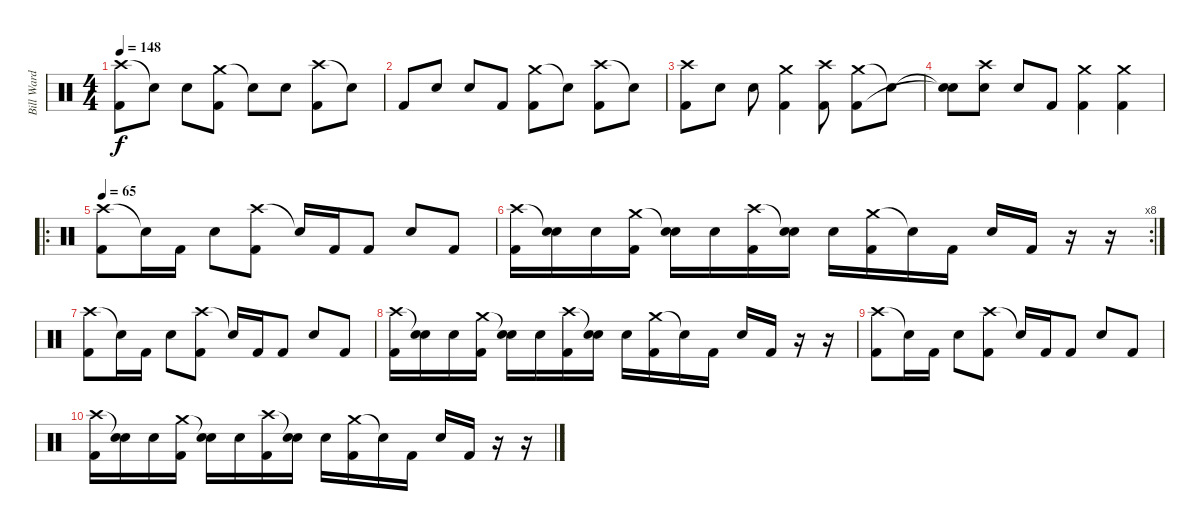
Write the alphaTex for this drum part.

\track ("Bill Ward" "Bill Ward") {instrument percussion}
\staff {score}
\articulation defaults
\ts (4 4)
\tempo 148
\clef neutral
\ks aminor
("Crash high (hit)" "Kick (hit) 2").8{dy f} "Snare (hit)"{t}.8 "Snare (hit) 2".8 ("Crash medium (hit)" "Kick (hit) 2").8 "Snare (hit)"{t}.8 "Snare (hit) 2".8 ("Crash high (hit)" "Kick (hit) 2").8 "Snare (hit)"{t}.8 |
"Kick (hit) 2".8 "Snare (hit) 2".8 "Snare (hit) 2".8 "Kick (hit) 2".8 ("Crash medium (hit)" "Kick (hit) 2").8 "Snare (hit)"{t}.8 ("Crash high (hit)" "Kick (hit) 2").8 "Snare (hit)"{t}.8 |
("Crash high (hit)" "Kick (hit) 2").8 "Snare (hit) 2".8 "Snare (hit) 2".8 ("Crash medium (hit)" "Kick (hit) 2").4 ("Crash high (hit)" "Kick (hit) 2").8 ("Crash medium (hit)" "Kick (hit) 2").8 "Snare (hit)"{t}.8 |
("Snare (hit)"{t} "Snare (hit)"{t}).8 ("Crash high (hit)" "Snare (hit) 2").8 "Snare (hit) 2".8 "Kick (hit) 2".8 ("Crash medium (hit)" "Kick (hit) 2").4 ("Crash medium (hit)" "Kick (hit) 2").4 |
\ro
\tempo 65
("Crash high (hit)" "Kick (hit) 2").8 "Snare (hit)"{t}.16 "Kick (hit) 2".16 "Snare (hit) 2".8 ("Crash high (hit)" "Kick (hit) 2").8 "Snare (hit)"{t}.16 "Kick (hit) 2".16 "Kick (hit) 2".8 "Snare (hit) 2".8 "Kick (hit) 2".8 |
\rc 8
("Crash high (hit)" "Kick (hit) 2").16 ("Snare (hit)"{t} "Snare (hit) 2").16 "Snare (hit) 2".16 ("Crash medium (hit)" "Kick (hit) 2").16 ("Snare (hit)"{t} "Snare (hit) 2").16 "Snare (hit) 2".16 ("Crash high (hit)" "Kick (hit) 2").16 ("Snare (hit)"{t} "Snare (hit) 2").16 "Snare (hit) 2".16 ("Crash medium (hit)" "Kick (hit) 2").16 "Snare (hit)"{t}.16 "Kick (hit) 2".16 "Snare (hit) 2".16 "Kick (hit) 2".16 r.16 r.16 |
("Crash high (hit)" "Kick (hit) 2").8 "Snare (hit)"{t}.16 "Kick (hit) 2".16 "Snare (hit) 2".8 ("Crash high (hit)" "Kick (hit) 2").8 "Snare (hit)"{t}.16 "Kick (hit) 2".16 "Kick (hit) 2".8 "Snare (hit) 2".8 "Kick (hit) 2".8 |
("Crash high (hit)" "Kick (hit) 2").16 ("Snare (hit)"{t} "Snare (hit) 2").16 "Snare (hit) 2".16 ("Crash medium (hit)" "Kick (hit) 2").16 ("Snare (hit)"{t} "Snare (hit) 2").16 "Snare (hit) 2".16 ("Crash high (hit)" "Kick (hit) 2").16 ("Snare (hit)"{t} "Snare (hit) 2").16 "Snare (hit) 2".16 ("Crash medium (hit)" "Kick (hit) 2").16 "Snare (hit)"{t}.16 "Kick (hit) 2".16 "Snare (hit) 2".16 "Kick (hit) 2".16 r.16 r.16 |
("Crash high (hit)" "Kick (hit) 2").8 "Snare (hit)"{t}.16 "Kick (hit) 2".16 "Snare (hit) 2".8 ("Crash high (hit)" "Kick (hit) 2").8 "Snare (hit)"{t}.16 "Kick (hit) 2".16 "Kick (hit) 2".8 "Snare (hit) 2".8 "Kick (hit) 2".8 |
("Crash high (hit)" "Kick (hit) 2").16 ("Snare (hit)"{t} "Snare (hit) 2").16 "Snare (hit) 2".16 ("Crash medium (hit)" "Kick (hit) 2").16 ("Snare (hit)"{t} "Snare (hit) 2").16 "Snare (hit) 2".16 ("Crash high (hit)" "Kick (hit) 2").16 ("Snare (hit)"{t} "Snare (hit) 2").16 "Snare (hit) 2".16 ("Crash medium (hit)" "Kick (hit) 2").16 "Snare (hit)"{t}.16 "Kick (hit) 2".16 "Snare (hit) 2".16 "Kick (hit) 2".16 r.16 r.16
